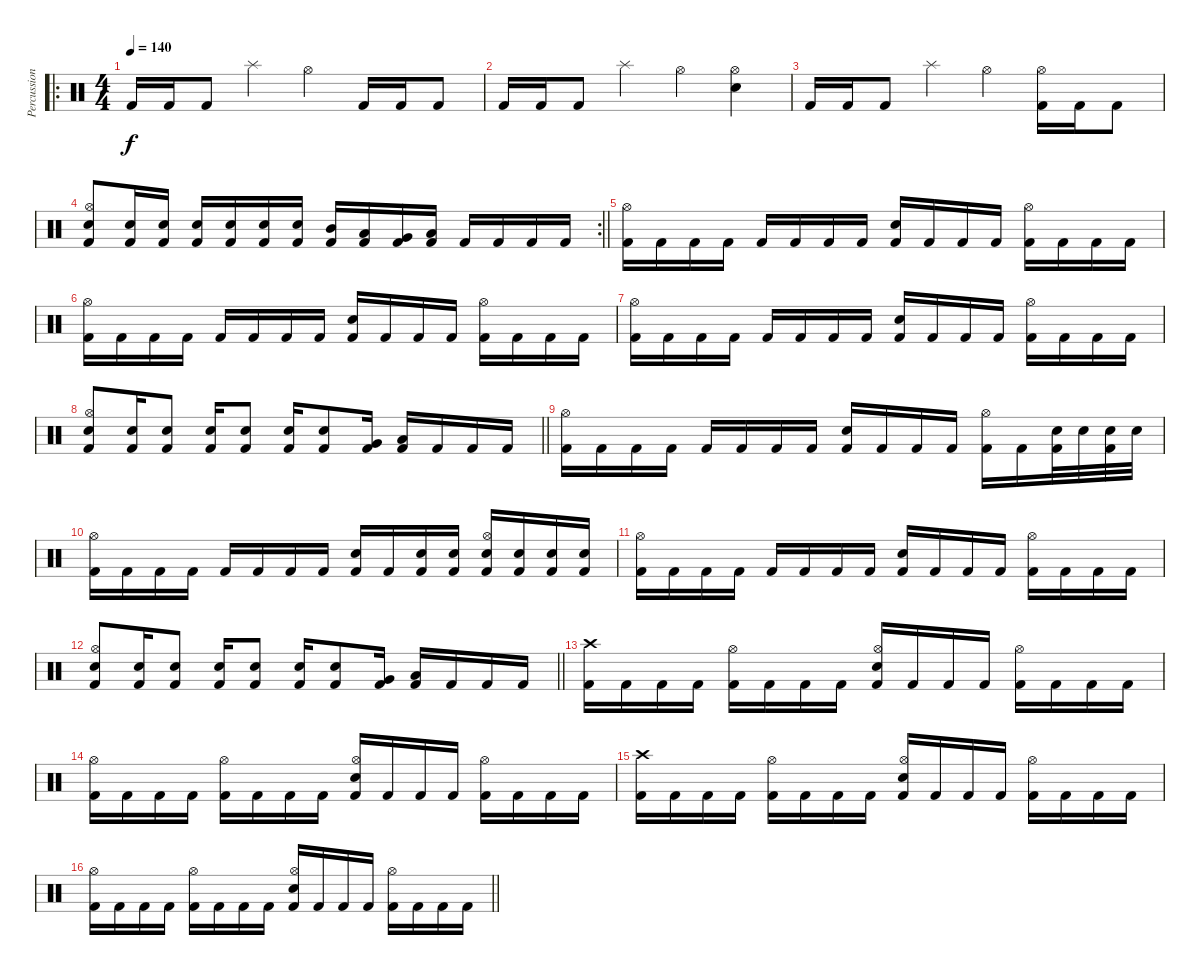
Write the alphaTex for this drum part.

\track ("Percussion" "Percussion") {instrument percussion}
\staff {score}
\articulation defaults
\ro
\ts (4 4)
\section ("" "")
\tempo 140
\clef neutral
\ks c "Kick (hit) 2".16{dy f} "Kick (hit) 2".16 "Kick (hit) 2".8 "Splash (hit)".4 "Hi-Hat (open)".4 "Kick (hit) 2".16 "Kick (hit) 2".16 "Kick (hit) 2".8
|
"Kick (hit) 2".16 "Kick (hit) 2".16 "Kick (hit) 2".8 "Splash (hit)".4 "Hi-Hat (open)".4 ("Hi-Hat (open)" "Electric Snare (hit)").4 |
"Kick (hit) 2".16 "Kick (hit) 2".16 "Kick (hit) 2".8 "Splash (hit)".4 "Hi-Hat (open)".4 ("Hi-Hat (open)" "Kick (hit) 2").16 "Kick (hit) 2".16 "Kick (hit) 2".8 |
\rc 2
\barLineRight lightlight
("Hi-Hat (open)" "Electric Snare (hit)" "Kick (hit) 2").8 ("Electric Snare (hit)" "Kick (hit) 2").16 ("Electric Snare (hit)" "Kick (hit) 2").16 ("Electric Snare (hit)" "Kick (hit) 2").16 ("Electric Snare (hit)" "Kick (hit) 2").16 ("Electric Snare (hit)" "Kick (hit) 2").16 ("Electric Snare (hit)" "Kick (hit) 2").16 ("Mid Tom (hit)" "Kick (hit) 2").16 ("Low Tom (hit)" "Kick (hit) 2").16 ("Very Low Tom (hit)" "Kick (hit) 2").16 ("Low Floor Tom (hit)" "Kick (hit) 2").16 "Kick (hit) 2".16 "Kick (hit) 2".16 "Kick (hit) 2".16 "Kick (hit) 2".16 |
\section ("" "")
("Hi-Hat (open)" "Kick (hit) 2").16 "Kick (hit) 2".16 "Kick (hit) 2".16 "Kick (hit) 2".16 "Kick (hit) 2".16 "Kick (hit) 2".16 "Kick (hit) 2".16 "Kick (hit) 2".16 ("Electric Snare (hit)" "Kick (hit) 2").16 "Kick (hit) 2".16 "Kick (hit) 2".16 "Kick (hit) 2".16 ("Hi-Hat (open)" "Kick (hit) 2").16 "Kick (hit) 2".16 "Kick (hit) 2".16 "Kick (hit) 2".16 |
("Hi-Hat (open)" "Kick (hit) 2").16 "Kick (hit) 2".16 "Kick (hit) 2".16 "Kick (hit) 2".16 "Kick (hit) 2".16 "Kick (hit) 2".16 "Kick (hit) 2".16 "Kick (hit) 2".16 ("Electric Snare (hit)" "Kick (hit) 2").16 "Kick (hit) 2".16 "Kick (hit) 2".16 "Kick (hit) 2".16 ("Hi-Hat (open)" "Kick (hit) 2").16 "Kick (hit) 2".16 "Kick (hit) 2".16 "Kick (hit) 2".16 |
("Hi-Hat (open)" "Kick (hit) 2").16 "Kick (hit) 2".16 "Kick (hit) 2".16 "Kick (hit) 2".16 "Kick (hit) 2".16 "Kick (hit) 2".16 "Kick (hit) 2".16 "Kick (hit) 2".16 ("Electric Snare (hit)" "Kick (hit) 2").16 "Kick (hit) 2".16 "Kick (hit) 2".16 "Kick (hit) 2".16 ("Hi-Hat (open)" "Kick (hit) 2").16 "Kick (hit) 2".16 "Kick (hit) 2".16 "Kick (hit) 2".16 |
\barLineRight lightlight
("Hi-Hat (open)" "Electric Snare (hit)" "Kick (hit) 2").8 ("Electric Snare (hit)" "Kick (hit) 2").16 ("Electric Snare (hit)" "Kick (hit) 2").8 ("Electric Snare (hit)" "Kick (hit) 2").16 ("Electric Snare (hit)" "Kick (hit) 2").8 ("Electric Snare (hit)" "Kick (hit) 2").16 ("Electric Snare (hit)" "Kick (hit) 2").8 ("Very Low Tom (hit)" "Kick (hit) 2").16 ("Low Floor Tom (hit)" "Kick (hit) 2").16 "Kick (hit) 2".16 "Kick (hit) 2".16 "Kick (hit) 2".16 |
("Hi-Hat (open)" "Kick (hit) 2").16 "Kick (hit) 2".16 "Kick (hit) 2".16 "Kick (hit) 2".16 "Kick (hit) 2".16 "Kick (hit) 2".16 "Kick (hit) 2".16 "Kick (hit) 2".16 ("Electric Snare (hit)" "Kick (hit) 2").16 "Kick (hit) 2".16 "Kick (hit) 2".16 "Kick (hit) 2".16 ("Hi-Hat (open)" "Kick (hit) 2").16 "Kick (hit) 2".16 ("Electric Snare (hit)" "Kick (hit) 2").32 "Electric Snare (hit)".32 ("Electric Snare (hit)" "Kick (hit) 2").32 "Electric Snare (hit)".32 |
("Hi-Hat (open)" "Kick (hit) 2").16 "Kick (hit) 2".16 "Kick (hit) 2".16 "Kick (hit) 2".16 "Kick (hit) 2".16 "Kick (hit) 2".16 "Kick (hit) 2".16 "Kick (hit) 2".16 ("Electric Snare (hit)" "Kick (hit) 2").16 "Kick (hit) 2".16 ("Electric Snare (hit)" "Kick (hit) 2").16 ("Electric Snare (hit)" "Kick (hit) 2").16 ("Hi-Hat (open)" "Electric Snare (hit)" "Kick (hit) 2").16 ("Electric Snare (hit)" "Kick (hit) 2").16 ("Electric Snare (hit)" "Kick (hit) 2").16 ("Electric Snare (hit)" "Kick (hit) 2").16 |
("Hi-Hat (open)" "Kick (hit) 2").16 "Kick (hit) 2".16 "Kick (hit) 2".16 "Kick (hit) 2".16 "Kick (hit) 2".16 "Kick (hit) 2".16 "Kick (hit) 2".16 "Kick (hit) 2".16 ("Electric Snare (hit)" "Kick (hit) 2").16 "Kick (hit) 2".16 "Kick (hit) 2".16 "Kick (hit) 2".16 ("Hi-Hat (open)" "Kick (hit) 2").16 "Kick (hit) 2".16 "Kick (hit) 2".16 "Kick (hit) 2".16 |
\barLineRight lightlight
("Hi-Hat (open)" "Electric Snare (hit)" "Kick (hit) 2").8 ("Electric Snare (hit)" "Kick (hit) 2").16 ("Electric Snare (hit)" "Kick (hit) 2").8 ("Electric Snare (hit)" "Kick (hit) 2").16 ("Electric Snare (hit)" "Kick (hit) 2").8 ("Electric Snare (hit)" "Kick (hit) 2").16 ("Electric Snare (hit)" "Kick (hit) 2").8 ("Very Low Tom (hit)" "Kick (hit) 2").16 ("Low Floor Tom (hit)" "Kick (hit) 2").16 "Kick (hit) 2".16 "Kick (hit) 2".16 "Kick (hit) 2".16 |
\section ("" "")
("Crash high (hit)" "Kick (hit) 2").16 "Kick (hit) 2".16 "Kick (hit) 2".16 "Kick (hit) 2".16 ("Hi-Hat (open)" "Kick (hit) 2").16 "Kick (hit) 2".16 "Kick (hit) 2".16 "Kick (hit) 2".16 ("Hi-Hat (open)" "Electric Snare (hit)" "Kick (hit) 2").16 "Kick (hit) 2".16 "Kick (hit) 2".16 "Kick (hit) 2".16 ("Hi-Hat (open)" "Kick (hit) 2").16 "Kick (hit) 2".16 "Kick (hit) 2".16 "Kick (hit) 2".16 |
("Hi-Hat (open)" "Kick (hit) 2").16 "Kick (hit) 2".16 "Kick (hit) 2".16 "Kick (hit) 2".16 ("Hi-Hat (open)" "Kick (hit) 2").16 "Kick (hit) 2".16 "Kick (hit) 2".16 "Kick (hit) 2".16 ("Hi-Hat (open)" "Electric Snare (hit)" "Kick (hit) 2").16 "Kick (hit) 2".16 "Kick (hit) 2".16 "Kick (hit) 2".16 ("Hi-Hat (open)" "Kick (hit) 2").16 "Kick (hit) 2".16 "Kick (hit) 2".16 "Kick (hit) 2".16 |
("Crash high (hit)" "Kick (hit) 2").16 "Kick (hit) 2".16 "Kick (hit) 2".16 "Kick (hit) 2".16 ("Hi-Hat (open)" "Kick (hit) 2").16 "Kick (hit) 2".16 "Kick (hit) 2".16 "Kick (hit) 2".16 ("Hi-Hat (open)" "Electric Snare (hit)" "Kick (hit) 2").16 "Kick (hit) 2".16 "Kick (hit) 2".16 "Kick (hit) 2".16 ("Hi-Hat (open)" "Kick (hit) 2").16 "Kick (hit) 2".16 "Kick (hit) 2".16 "Kick (hit) 2".16 |
\barLineRight lightlight
("Hi-Hat (open)" "Kick (hit) 2").16 "Kick (hit) 2".16 "Kick (hit) 2".16 "Kick (hit) 2".16 ("Hi-Hat (open)" "Kick (hit) 2").16 "Kick (hit) 2".16 "Kick (hit) 2".16 "Kick (hit) 2".16 ("Hi-Hat (open)" "Electric Snare (hit)" "Kick (hit) 2").16 "Kick (hit) 2".16 "Kick (hit) 2".16 "Kick (hit) 2".16 ("Hi-Hat (open)" "Kick (hit) 2").16 "Kick (hit) 2".16 "Kick (hit) 2".16 "Kick (hit) 2".16
